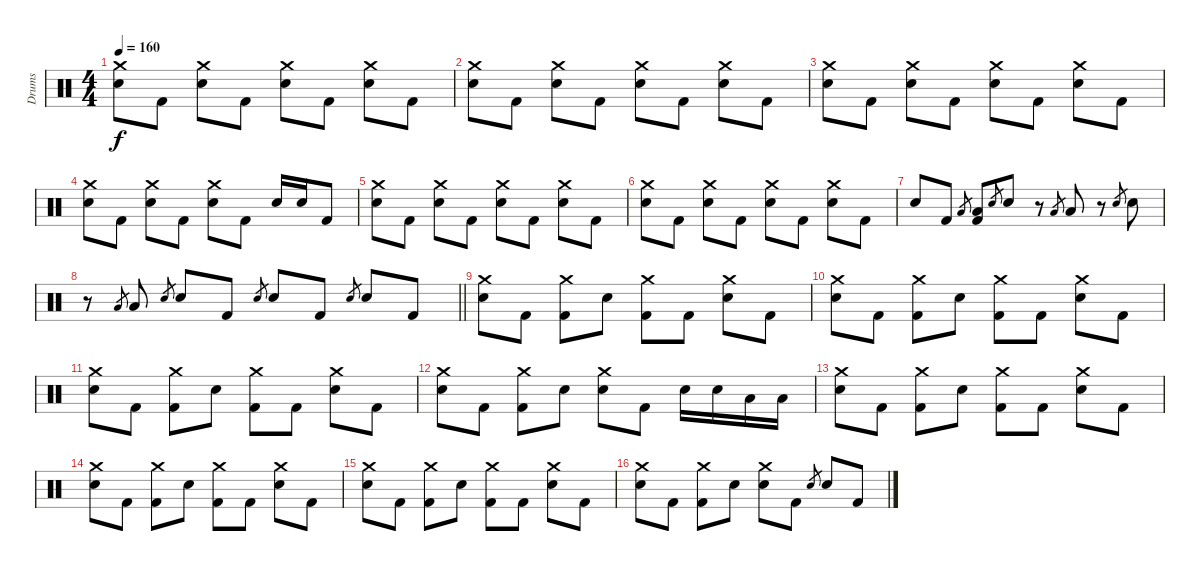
\track ("Drums" "Drums") {instrument percussion}
\staff {score}
\articulation defaults
\ts (4 4)
\tempo 160
\clef neutral
\ks c
("Crash medium (hit)" "Electric Snare (hit)").8{dy f} "Kick (hit) 2".8 ("Crash medium (hit)" "Electric Snare (hit)").8 "Kick (hit) 2".8 ("Crash medium (hit)" "Electric Snare (hit)").8 "Kick (hit) 2".8 ("Crash medium (hit)" "Electric Snare (hit)").8 "Kick (hit) 2".8 |
("Crash medium (hit)" "Electric Snare (hit)").8 "Kick (hit) 2".8 ("Crash medium (hit)" "Electric Snare (hit)").8 "Kick (hit) 2".8 ("Crash medium (hit)" "Electric Snare (hit)").8 "Kick (hit) 2".8 ("Crash medium (hit)" "Electric Snare (hit)").8 "Kick (hit) 2".8 |
("Crash medium (hit)" "Electric Snare (hit)").8 "Kick (hit) 2".8 ("Crash medium (hit)" "Electric Snare (hit)").8 "Kick (hit) 2".8 ("Crash medium (hit)" "Electric Snare (hit)").8 "Kick (hit) 2".8 ("Crash medium (hit)" "Electric Snare (hit)").8 "Kick (hit) 2".8 |
("Crash medium (hit)" "Electric Snare (hit)").8 "Kick (hit) 2".8 ("Crash medium (hit)" "Electric Snare (hit)").8 "Kick (hit) 2".8 ("Crash medium (hit)" "Electric Snare (hit)").8 "Kick (hit) 2".8 "Electric Snare (hit)".16 "Electric Snare (hit)".16 "Kick (hit) 2".8 |
("Crash medium (hit)" "Electric Snare (hit)").8 "Kick (hit) 2".8 ("Crash medium (hit)" "Electric Snare (hit)").8 "Kick (hit) 2".8 ("Crash medium (hit)" "Electric Snare (hit)").8 "Kick (hit) 2".8 ("Crash medium (hit)" "Electric Snare (hit)").8 "Kick (hit) 2".8 |
("Crash medium (hit)" "Electric Snare (hit)").8 "Kick (hit) 2".8 ("Crash medium (hit)" "Electric Snare (hit)").8 "Kick (hit) 2".8 ("Crash medium (hit)" "Electric Snare (hit)").8 "Kick (hit) 2".8 ("Crash medium (hit)" "Electric Snare (hit)").8 "Kick (hit) 2".8 |
"Electric Snare (hit)".8 "Kick (hit) 2".8 "Low Tom (hit)".8{gr} ("Low Tom (hit)" "Kick (hit) 2").8 "Electric Snare (hit)".8{gr} "Electric Snare (hit)".8 r.8 "Low Tom (hit)".8{gr} "Low Tom (hit)".8 r.8 "Electric Snare (hit)".8{gr} "Electric Snare (hit)".8 |
\barLineRight lightlight
r.8 "Low Tom (hit)".8{gr} "Low Tom (hit)".8 "Electric Snare (hit)".8{gr} "Electric Snare (hit)".8 "Kick (hit) 2".8 "Electric Snare (hit)".8{gr} "Electric Snare (hit)".8 "Kick (hit) 2".8 "Electric Snare (hit)".8{gr} "Electric Snare (hit)".8 "Kick (hit) 2".8 |
("Crash medium (hit)" "Electric Snare (hit)").8 "Kick (hit) 2".8 ("Crash medium (hit)" "Kick (hit) 2").8 "Electric Snare (hit)".8 ("Crash medium (hit)" "Kick (hit) 2").8 "Kick (hit) 2".8 ("Crash medium (hit)" "Electric Snare (hit)").8 "Kick (hit) 2".8 |
("Crash medium (hit)" "Electric Snare (hit)").8 "Kick (hit) 2".8 ("Crash medium (hit)" "Kick (hit) 2").8 "Electric Snare (hit)".8 ("Crash medium (hit)" "Kick (hit) 2").8 "Kick (hit) 2".8 ("Crash medium (hit)" "Electric Snare (hit)").8 "Kick (hit) 2".8 |
("Crash medium (hit)" "Electric Snare (hit)").8 "Kick (hit) 2".8 ("Crash medium (hit)" "Kick (hit) 2").8 "Electric Snare (hit)".8 ("Crash medium (hit)" "Kick (hit) 2").8 "Kick (hit) 2".8 ("Crash medium (hit)" "Electric Snare (hit)").8 "Kick (hit) 2".8 |
("Crash medium (hit)" "Electric Snare (hit)").8 "Kick (hit) 2".8 ("Crash medium (hit)" "Kick (hit) 2").8 "Electric Snare (hit)".8 ("Crash medium (hit)" "Electric Snare (hit)").8 "Kick (hit) 2".8 "Electric Snare (hit)".16 "Electric Snare (hit)".16 "Low Tom (hit)".16 "Low Tom (hit)".16 |
("Crash medium (hit)" "Electric Snare (hit)").8 "Kick (hit) 2".8 ("Crash medium (hit)" "Kick (hit) 2").8 "Electric Snare (hit)".8 ("Crash medium (hit)" "Kick (hit) 2").8 "Kick (hit) 2".8 ("Crash medium (hit)" "Electric Snare (hit)").8 "Kick (hit) 2".8 |
("Crash medium (hit)" "Electric Snare (hit)").8 "Kick (hit) 2".8 ("Crash medium (hit)" "Kick (hit) 2").8 "Electric Snare (hit)".8 ("Crash medium (hit)" "Kick (hit) 2").8 "Kick (hit) 2".8 ("Crash medium (hit)" "Electric Snare (hit)").8 "Kick (hit) 2".8 |
("Crash medium (hit)" "Electric Snare (hit)").8 "Kick (hit) 2".8 ("Crash medium (hit)" "Kick (hit) 2").8 "Electric Snare (hit)".8 ("Crash medium (hit)" "Kick (hit) 2").8 "Kick (hit) 2".8 ("Crash medium (hit)" "Electric Snare (hit)").8 "Kick (hit) 2".8 |
("Crash medium (hit)" "Electric Snare (hit)").8 "Kick (hit) 2".8 ("Crash medium (hit)" "Kick (hit) 2").8 "Electric Snare (hit)".8 ("Crash medium (hit)" "Electric Snare (hit)").8 "Kick (hit) 2".8 "Electric Snare (hit)".8{gr} "Electric Snare (hit)".8 "Kick (hit) 2".8
